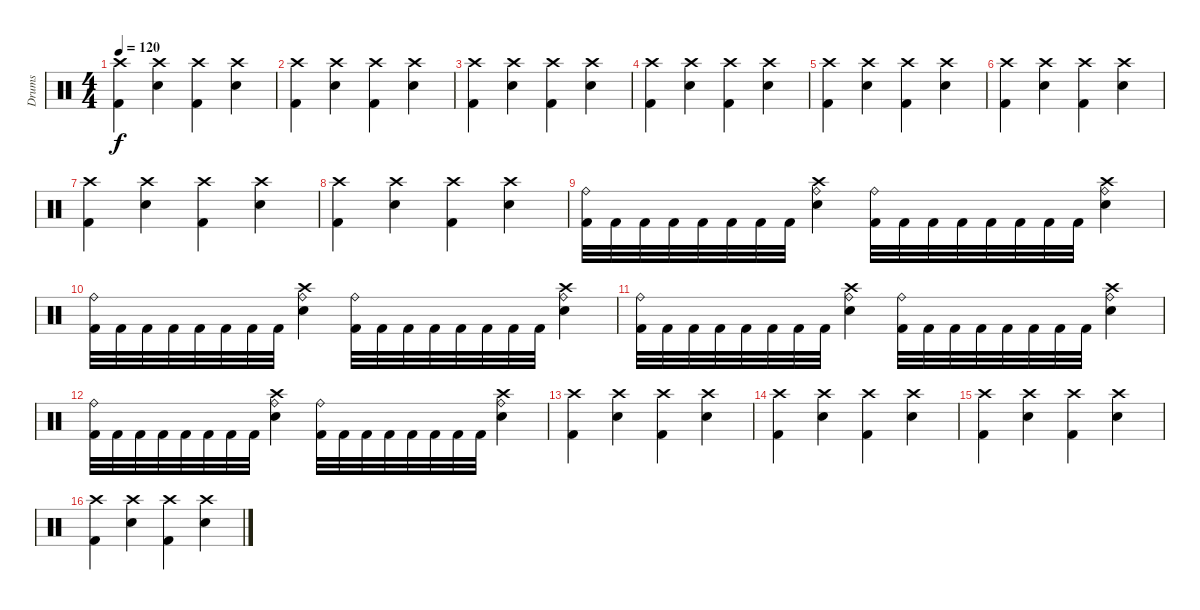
\track ("Drums" "Drums") {instrument percussion}
\staff {score}
\articulation defaults
\ts (4 4)
\tempo 120
\clef neutral
\ks c
("Crash high (hit)" "Kick (hit) 2").4{dy f} ("Electric Snare (hit)" "Crash high (hit)").4 ("Crash high (hit)" "Kick (hit) 2").4 ("Electric Snare (hit)" "Crash high (hit)").4 |
("Crash high (hit)" "Kick (hit) 2").4 ("Electric Snare (hit)" "Crash high (hit)").4 ("Crash high (hit)" "Kick (hit) 2").4 ("Electric Snare (hit)" "Crash high (hit)").4 |
("Crash high (hit)" "Kick (hit) 2").4 ("Electric Snare (hit)" "Crash high (hit)").4 ("Crash high (hit)" "Kick (hit) 2").4 ("Electric Snare (hit)" "Crash high (hit)").4 |
("Crash high (hit)" "Kick (hit) 2").4 ("Electric Snare (hit)" "Crash high (hit)").4 ("Crash high (hit)" "Kick (hit) 2").4 ("Electric Snare (hit)" "Crash high (hit)").4 |
("Crash high (hit)" "Kick (hit) 2").4 ("Electric Snare (hit)" "Crash high (hit)").4 ("Crash high (hit)" "Kick (hit) 2").4 ("Electric Snare (hit)" "Crash high (hit)").4 |
("Crash high (hit)" "Kick (hit) 2").4 ("Electric Snare (hit)" "Crash high (hit)").4 ("Crash high (hit)" "Kick (hit) 2").4 ("Electric Snare (hit)" "Crash high (hit)").4 |
("Crash high (hit)" "Kick (hit) 2").4 ("Electric Snare (hit)" "Crash high (hit)").4 ("Crash high (hit)" "Kick (hit) 2").4 ("Electric Snare (hit)" "Crash high (hit)").4 |
("Crash high (hit)" "Kick (hit) 2").4 ("Electric Snare (hit)" "Crash high (hit)").4 ("Crash high (hit)" "Kick (hit) 2").4 ("Electric Snare (hit)" "Crash high (hit)").4 |
("Ride (bell)" "Kick (hit) 2").32 "Kick (hit) 2".32 "Kick (hit) 2".32 "Kick (hit) 2".32 "Kick (hit) 2".32 "Kick (hit) 2".32 "Kick (hit) 2".32 "Kick (hit) 2".32 ("Ride (bell)" "Electric Snare (hit)" "Crash high (hit)").4 ("Ride (bell)" "Kick (hit) 2").32 "Kick (hit) 2".32 "Kick (hit) 2".32 "Kick (hit) 2".32 "Kick (hit) 2".32 "Kick (hit) 2".32 "Kick (hit) 2".32 "Kick (hit) 2".32 ("Ride (bell)" "Electric Snare (hit)" "Crash high (hit)").4 |
("Ride (bell)" "Kick (hit) 2").32 "Kick (hit) 2".32 "Kick (hit) 2".32 "Kick (hit) 2".32 "Kick (hit) 2".32 "Kick (hit) 2".32 "Kick (hit) 2".32 "Kick (hit) 2".32 ("Ride (bell)" "Electric Snare (hit)" "Crash high (hit)").4 ("Ride (bell)" "Kick (hit) 2").32 "Kick (hit) 2".32 "Kick (hit) 2".32 "Kick (hit) 2".32 "Kick (hit) 2".32 "Kick (hit) 2".32 "Kick (hit) 2".32 "Kick (hit) 2".32 ("Ride (bell)" "Electric Snare (hit)" "Crash high (hit)").4 |
("Ride (bell)" "Kick (hit) 2").32 "Kick (hit) 2".32 "Kick (hit) 2".32 "Kick (hit) 2".32 "Kick (hit) 2".32 "Kick (hit) 2".32 "Kick (hit) 2".32 "Kick (hit) 2".32 ("Ride (bell)" "Electric Snare (hit)" "Crash high (hit)").4 ("Ride (bell)" "Kick (hit) 2").32 "Kick (hit) 2".32 "Kick (hit) 2".32 "Kick (hit) 2".32 "Kick (hit) 2".32 "Kick (hit) 2".32 "Kick (hit) 2".32 "Kick (hit) 2".32 ("Ride (bell)" "Electric Snare (hit)" "Crash high (hit)").4 |
("Ride (bell)" "Kick (hit) 2").32 "Kick (hit) 2".32 "Kick (hit) 2".32 "Kick (hit) 2".32 "Kick (hit) 2".32 "Kick (hit) 2".32 "Kick (hit) 2".32 "Kick (hit) 2".32 ("Ride (bell)" "Electric Snare (hit)" "Crash high (hit)").4 ("Ride (bell)" "Kick (hit) 2").32 "Kick (hit) 2".32 "Kick (hit) 2".32 "Kick (hit) 2".32 "Kick (hit) 2".32 "Kick (hit) 2".32 "Kick (hit) 2".32 "Kick (hit) 2".32 ("Ride (bell)" "Electric Snare (hit)" "Crash high (hit)").4 |
("Crash high (hit)" "Kick (hit) 2").4 ("Electric Snare (hit)" "Crash high (hit)").4 ("Crash high (hit)" "Kick (hit) 2").4 ("Electric Snare (hit)" "Crash high (hit)").4 |
("Crash high (hit)" "Kick (hit) 2").4 ("Electric Snare (hit)" "Crash high (hit)").4 ("Crash high (hit)" "Kick (hit) 2").4 ("Electric Snare (hit)" "Crash high (hit)").4 |
("Crash high (hit)" "Kick (hit) 2").4 ("Electric Snare (hit)" "Crash high (hit)").4 ("Crash high (hit)" "Kick (hit) 2").4 ("Electric Snare (hit)" "Crash high (hit)").4 |
("Crash high (hit)" "Kick (hit) 2").4 ("Electric Snare (hit)" "Crash high (hit)").4 ("Crash high (hit)" "Kick (hit) 2").4 ("Electric Snare (hit)" "Crash high (hit)").4
